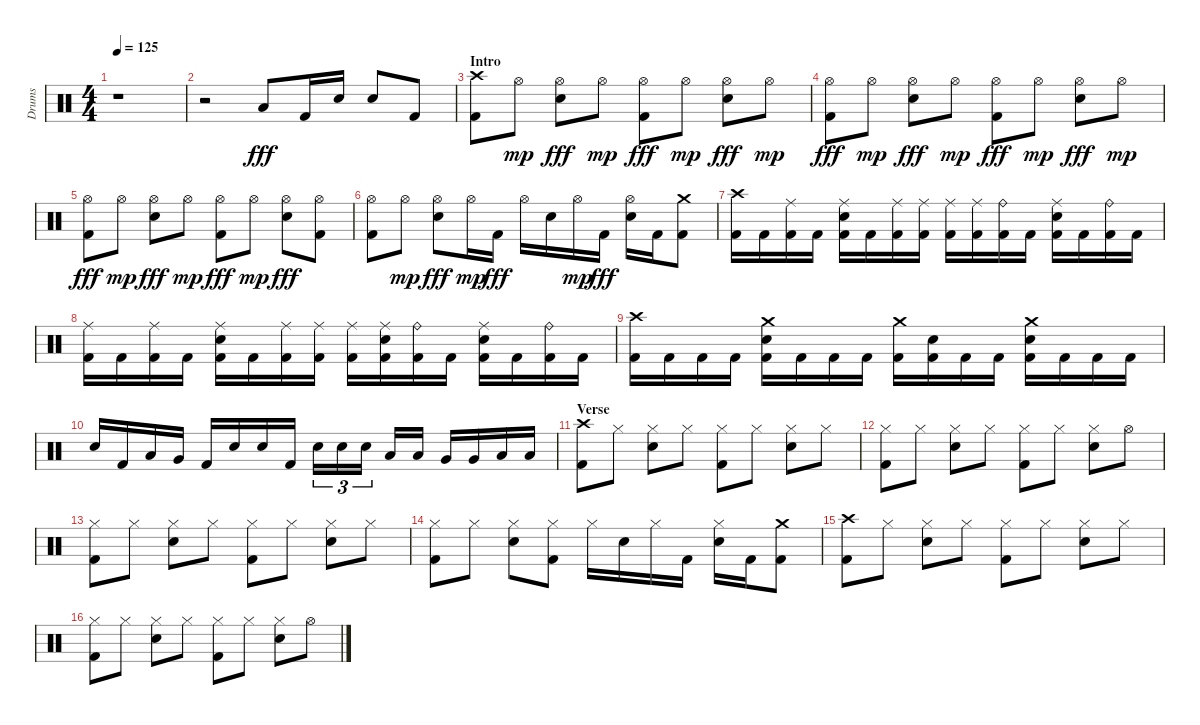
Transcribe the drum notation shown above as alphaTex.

\track ("Drums" "Drums") {instrument percussion}
\staff {score}
\articulation defaults
\ts (4 4)
\tempo 125
\clef neutral
\ks aminor
r.1{dy fff} |
r.2 "Low Floor Tom (hit)".8 "Kick (hit) 2".16 "Snare (hit) 2".16 "Snare (hit) 2".8 "Kick (hit) 2".8 |
\section ("" "Intro")
("Kick (hit) 2" "Crash high (hit)").8 "Hi-Hat (open)".8{dy mp} ("Snare (hit) 2" "Hi-Hat (open)").8{dy fff} "Hi-Hat (open)".8{dy mp} ("Kick (hit) 2" "Hi-Hat (open)").8{dy fff} "Hi-Hat (open)".8{dy mp} ("Snare (hit) 2" "Hi-Hat (open)").8{dy fff} "Hi-Hat (open)".8{dy mp} |
("Kick (hit) 2" "Hi-Hat (open)").8{dy fff} "Hi-Hat (open)".8{dy mp} ("Snare (hit) 2" "Hi-Hat (open)").8{dy fff} "Hi-Hat (open)".8{dy mp} ("Kick (hit) 2" "Hi-Hat (open)").8{dy fff} "Hi-Hat (open)".8{dy mp} ("Snare (hit) 2" "Hi-Hat (open)").8{dy fff} "Hi-Hat (open)".8{dy mp} |
("Kick (hit) 2" "Hi-Hat (open)").8{dy fff} "Hi-Hat (open)".8{dy mp} ("Snare (hit) 2" "Hi-Hat (open)").8{dy fff} "Hi-Hat (open)".8{dy mp} ("Kick (hit) 2" "Hi-Hat (open)").8{dy fff} "Hi-Hat (open)".8{dy mp} ("Snare (hit) 2" "Hi-Hat (open)").8{dy fff} ("Kick (hit) 2" "Hi-Hat (open)").8 |
("Kick (hit) 2" "Hi-Hat (open)").8 "Hi-Hat (open)".8{dy mp} ("Snare (hit) 2" "Hi-Hat (open)").8{dy fff} "Hi-Hat (open)".16{dy mp} "Kick (hit) 2".16{dy fff} "Hi-Hat (open)".16 "Snare (hit) 2".16 "Hi-Hat (open)".16{dy mp} "Kick (hit) 2".16{dy fff} ("Snare (hit) 2" "Hi-Hat (open)").16 "Kick (hit) 2".16 ("Kick (hit) 2" "Crash medium (hit)").8 |
("Kick (hit) 2" "Crash high (hit)").16 "Kick (hit) 2".16 ("Kick (hit) 2" "Ride (middle)").16 "Kick (hit) 2".16 ("Kick (hit) 2" "Snare (hit) 2" "Ride (middle)").16 "Kick (hit) 2".16 ("Kick (hit) 2" "Ride (middle)").16 ("Kick (hit) 2" "Ride (middle)").16 ("Kick (hit) 2" "Ride (middle)").16 ("Kick (hit) 2" "Ride (middle)").16 ("Kick (hit) 2" "Ride (bell)").16 "Kick (hit) 2".16 ("Kick (hit) 2" "Snare (hit) 2" "Ride (middle)").16 "Kick (hit) 2".16 ("Kick (hit) 2" "Ride (bell)").16 "Kick (hit) 2".16 |
("Kick (hit) 2" "Ride (middle)").16 "Kick (hit) 2".16 ("Kick (hit) 2" "Ride (middle)").16 "Kick (hit) 2".16 ("Kick (hit) 2" "Snare (hit) 2" "Ride (middle)").16 "Kick (hit) 2".16 ("Kick (hit) 2" "Ride (middle)").16 ("Kick (hit) 2" "Ride (middle)").16 ("Kick (hit) 2" "Ride (middle)").16 ("Kick (hit) 2" "Snare (hit) 2" "Ride (middle)").16 ("Kick (hit) 2" "Ride (bell)").16 "Kick (hit) 2".16 ("Kick (hit) 2" "Snare (hit) 2" "Ride (middle)").16 "Kick (hit) 2".16 ("Kick (hit) 2" "Ride (bell)").16 "Kick (hit) 2".16 |
("Kick (hit) 2" "Crash high (hit)").16 "Kick (hit) 2".16 "Kick (hit) 2".16 "Kick (hit) 2".16 ("Kick (hit) 2" "Snare (hit) 2" "Crash medium (hit)").16 "Kick (hit) 2".16 "Kick (hit) 2".16 "Kick (hit) 2".16 ("Kick (hit) 2" "Crash medium (hit)").16 ("Kick (hit) 2" "Snare (hit) 2").16 "Kick (hit) 2".16 "Kick (hit) 2".16 ("Kick (hit) 2" "Snare (hit) 2" "Crash medium (hit)").16 "Kick (hit) 2".16 "Kick (hit) 2".16 "Kick (hit) 2".16 |
"Snare (hit) 2".16 "Kick (hit) 2".16 "Low Tom (hit)".16 "Very Low Tom (hit)".16 "Kick (hit) 2".16 "Snare (hit) 2".16 "Snare (hit) 2".16 "Kick (hit) 2".16 "Snare (hit) 2".16{tu (3 2)} "Snare (hit) 2".16{tu (3 2)} "Snare (hit) 2".16{tu (3 2)} "Low Tom (hit)".16 "Low Tom (hit)".16 "Very Low Tom (hit)".16 "Very Low Tom (hit)".16 "Low Floor Tom (hit)".16 "Low Floor Tom (hit)".16 |
\section ("" "Verse")
("Kick (hit) 2" "Crash high (hit)").8 "Hi-Hat (closed)".8 ("Snare (hit) 2" "Hi-Hat (closed)").8 "Hi-Hat (closed)".8 ("Kick (hit) 2" "Hi-Hat (closed)").8 "Hi-Hat (closed)".8 ("Snare (hit) 2" "Hi-Hat (closed)").8 "Hi-Hat (closed)".8 |
("Kick (hit) 2" "Hi-Hat (closed)").8 "Hi-Hat (closed)".8 ("Snare (hit) 2" "Hi-Hat (closed)").8 "Hi-Hat (closed)".8 ("Kick (hit) 2" "Hi-Hat (closed)").8 "Hi-Hat (closed)".8 ("Snare (hit) 2" "Hi-Hat (closed)").8 "Hi-Hat (open)".8 |
("Kick (hit) 2" "Hi-Hat (closed)").8 "Hi-Hat (closed)".8 ("Snare (hit) 2" "Hi-Hat (closed)").8 "Hi-Hat (closed)".8 ("Kick (hit) 2" "Hi-Hat (closed)").8 "Hi-Hat (closed)".8 ("Snare (hit) 2" "Hi-Hat (closed)").8 "Hi-Hat (closed)".8 |
("Kick (hit) 2" "Hi-Hat (closed)").8 "Hi-Hat (closed)".8 ("Snare (hit) 2" "Hi-Hat (closed)").8 ("Kick (hit) 2" "Hi-Hat (closed)").8 "Hi-Hat (closed)".16 "Snare (hit) 2".16 "Hi-Hat (closed)".16 "Kick (hit) 2".16 ("Snare (hit) 2" "Hi-Hat (closed)").16 "Kick (hit) 2".16 ("Kick (hit) 2" "Crash medium (hit)").8 |
("Kick (hit) 2" "Crash high (hit)").8 "Hi-Hat (closed)".8 ("Snare (hit) 2" "Hi-Hat (closed)").8 "Hi-Hat (closed)".8 ("Kick (hit) 2" "Hi-Hat (closed)").8 "Hi-Hat (closed)".8 ("Snare (hit) 2" "Hi-Hat (closed)").8 "Hi-Hat (closed)".8 |
("Kick (hit) 2" "Hi-Hat (closed)").8 "Hi-Hat (closed)".8 ("Snare (hit) 2" "Hi-Hat (closed)").8 "Hi-Hat (closed)".8 ("Kick (hit) 2" "Hi-Hat (closed)").8 "Hi-Hat (closed)".8 ("Snare (hit) 2" "Hi-Hat (closed)").8 "Hi-Hat (open)".8
